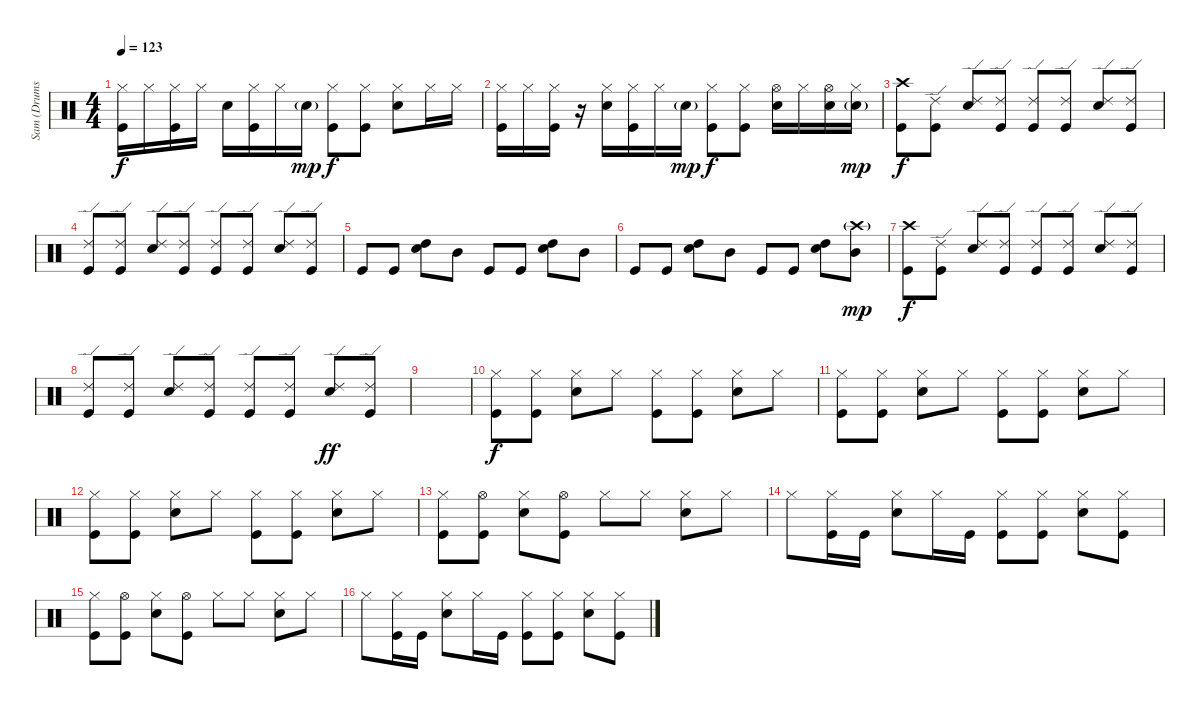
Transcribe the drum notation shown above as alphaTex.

\track ("Sam (Drums)" "Sam (Drums") {instrument percussion}
\staff {score}
\articulation defaults
\ts (4 4)
\tempo 123
\clef neutral
\ks c
("Hi-Hat (closed)" "Kick (hit)").16{dy f} "Hi-Hat (closed)".16 ("Hi-Hat (closed)" "Kick (hit)").16 "Hi-Hat (closed)".16 "Snare (hit) 2".16 ("Hi-Hat (closed)" "Kick (hit)").16 "Hi-Hat (closed)".16 "Snare (hit) 2"{g}.16{dy mp} ("Hi-Hat (closed)" "Kick (hit)").8{dy f} ("Hi-Hat (closed)" "Kick (hit)").8 ("Hi-Hat (closed)" "Snare (hit) 2").8 "Hi-Hat (closed)".16 "Hi-Hat (closed)".16 |
("Hi-Hat (closed)" "Kick (hit)").16 "Hi-Hat (closed)".16 ("Hi-Hat (closed)" "Kick (hit)").16 r.16 ("Hi-Hat (closed)" "Snare (hit) 2").16 ("Hi-Hat (closed)" "Kick (hit)").16 "Hi-Hat (closed)".16 "Snare (hit) 2"{g}.16{dy mp} ("Hi-Hat (closed)" "Kick (hit)").8{dy f} ("Hi-Hat (closed)" "Kick (hit)").8 ("Hi-Hat (open)" "Snare (hit) 2").16 "Hi-Hat (closed)".16 ("Hi-Hat (open)" "Snare (hit) 2").16 ("Hi-Hat (closed)" "Snare (hit) 2"{g}).16{dy mp} |
("Crash high (hit)" "Kick (hit)").8{dy f} ("Ride (edge) 2" "Kick (hit)").8 ("Ride (edge) 2" "Snare (hit) 2").8 ("Ride (edge) 2" "Kick (hit)").8 ("Ride (edge) 2" "Kick (hit)").8 ("Ride (edge) 2" "Kick (hit)").8 ("Ride (edge) 2" "Snare (hit) 2").8 ("Ride (edge) 2" "Kick (hit)").8 |
("Ride (edge) 2" "Kick (hit)").8 ("Ride (edge) 2" "Kick (hit)").8 ("Ride (edge) 2" "Snare (hit) 2").8 ("Ride (edge) 2" "Kick (hit)").8 ("Ride (edge) 2" "Kick (hit)").8 ("Ride (edge) 2" "Kick (hit)").8 ("Ride (edge) 2" "Snare (hit) 2").8 ("Ride (edge) 2" "Kick (hit)").8 |
"Kick (hit)".8 "Kick (hit)".8 ("High Tom (hit)" "Snare (hit) 2").8 "Mid Tom (hit)".8 "Kick (hit)".8 "Kick (hit)".8 ("High Tom (hit)" "Snare (hit) 2").8 "Mid Tom (hit)".8 |
"Kick (hit)".8 "Kick (hit)".8 ("High Tom (hit)" "Snare (hit) 2").8 "Mid Tom (hit)".8 "Kick (hit)".8 "Kick (hit)".8 ("High Tom (hit)" "Snare (hit) 2").8 ("Crash high (hit)"{g} "Mid Tom (hit)").8{dy mp} |
("Crash high (hit)" "Kick (hit)").8{dy f} ("Ride (edge) 2" "Kick (hit)").8 ("Ride (edge) 2" "Snare (hit) 2").8 ("Ride (edge) 2" "Kick (hit)").8 ("Ride (edge) 2" "Kick (hit)").8 ("Ride (edge) 2" "Kick (hit)").8 ("Ride (edge) 2" "Snare (hit) 2").8 ("Ride (edge) 2" "Kick (hit)").8 |
("Ride (edge) 2" "Kick (hit)").8 ("Ride (edge) 2" "Kick (hit)").8 ("Ride (edge) 2" "Snare (hit) 2").8 ("Ride (edge) 2" "Kick (hit)").8 ("Ride (edge) 2" "Kick (hit)").8 ("Ride (edge) 2" "Kick (hit)").8 ("Ride (edge) 2" "Snare (hit) 2").8{dy ff} ("Ride (edge) 2" "Kick (hit)").8 |
|
("Hi-Hat (closed)" "Kick (hit)").8{dy f} ("Hi-Hat (closed)" "Kick (hit)").8 ("Hi-Hat (closed)" "Snare (hit) 2").8 "Hi-Hat (closed)".8 ("Hi-Hat (closed)" "Kick (hit)").8 ("Hi-Hat (closed)" "Kick (hit)").8 ("Hi-Hat (closed)" "Snare (hit) 2").8 "Hi-Hat (closed)".8 |
("Hi-Hat (closed)" "Kick (hit)").8 ("Hi-Hat (closed)" "Kick (hit)").8 ("Hi-Hat (closed)" "Snare (hit) 2").8 "Hi-Hat (closed)".8 ("Hi-Hat (closed)" "Kick (hit)").8 ("Hi-Hat (closed)" "Kick (hit)").8 ("Hi-Hat (closed)" "Snare (hit) 2").8 "Hi-Hat (closed)".8 |
("Hi-Hat (closed)" "Kick (hit)").8 ("Hi-Hat (closed)" "Kick (hit)").8 ("Hi-Hat (closed)" "Snare (hit) 2").8 "Hi-Hat (closed)".8 ("Hi-Hat (closed)" "Kick (hit)").8 ("Hi-Hat (closed)" "Kick (hit)").8 ("Hi-Hat (closed)" "Snare (hit) 2").8 "Hi-Hat (closed)".8 |
("Hi-Hat (closed)" "Kick (hit)").8 ("Hi-Hat (open)" "Kick (hit)").8 ("Hi-Hat (closed)" "Snare (hit) 2").8 ("Hi-Hat (open)" "Kick (hit)").8 "Hi-Hat (closed)".8 "Hi-Hat (closed)".8 ("Hi-Hat (closed)" "Snare (hit) 2").8 "Hi-Hat (closed)".8 |
"Hi-Hat (closed)".8 ("Hi-Hat (closed)" "Kick (hit)").16 "Kick (hit)".16 ("Hi-Hat (closed)" "Snare (hit) 2").8 "Hi-Hat (closed)".16 "Kick (hit)".16 ("Hi-Hat (closed)" "Kick (hit)").8 ("Hi-Hat (closed)" "Kick (hit)").8 ("Hi-Hat (closed)" "Snare (hit) 2").8 ("Hi-Hat (closed)" "Kick (hit)").8 |
("Hi-Hat (closed)" "Kick (hit)").8 ("Hi-Hat (open)" "Kick (hit)").8 ("Hi-Hat (closed)" "Snare (hit) 2").8 ("Hi-Hat (open)" "Kick (hit)").8 "Hi-Hat (closed)".8 "Hi-Hat (closed)".8 ("Hi-Hat (closed)" "Snare (hit) 2").8 "Hi-Hat (closed)".8 |
"Hi-Hat (closed)".8 ("Hi-Hat (closed)" "Kick (hit)").16 "Kick (hit)".16 ("Hi-Hat (closed)" "Snare (hit) 2").8 "Hi-Hat (closed)".16 "Kick (hit)".16 ("Hi-Hat (closed)" "Kick (hit)").8 ("Hi-Hat (closed)" "Kick (hit)").8 ("Hi-Hat (closed)" "Snare (hit) 2").8 ("Hi-Hat (closed)" "Kick (hit)").8
